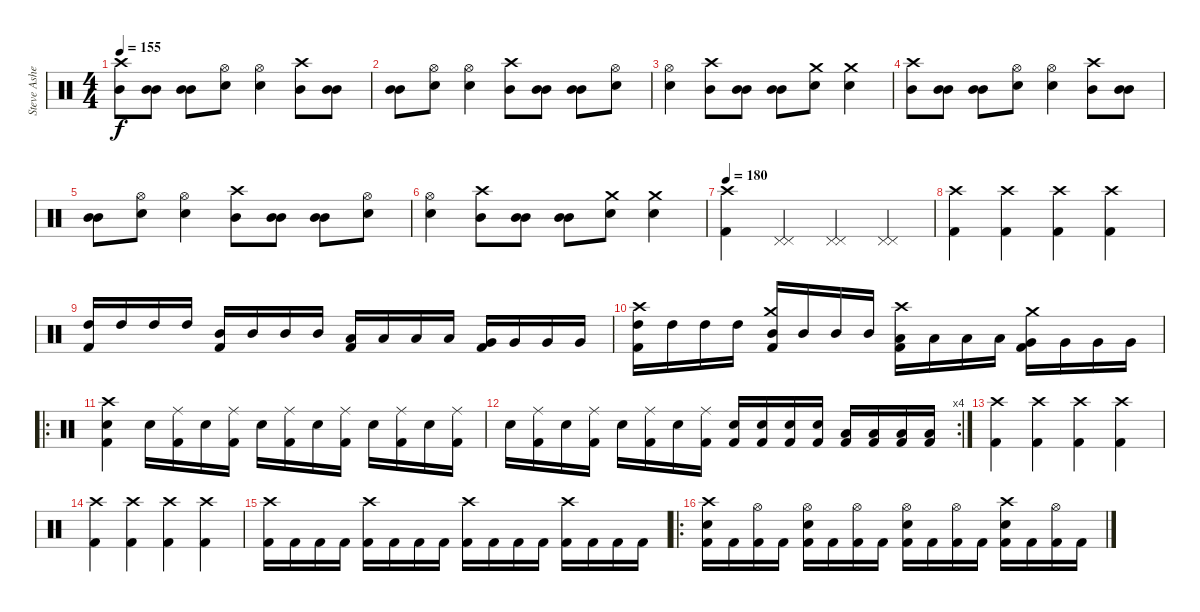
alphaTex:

\track ("Steve Asheim" "Steve Ashe") {instrument percussion}
\staff {score}
\articulation defaults
\ts (4 4)
\tempo 155
\clef neutral
\ks c
("Mid Tom (hit)" "Crash high (hit)").8{dy f} ("Mid Tom (hit)" "Mid Tom (hit)").8 ("Mid Tom (hit)" "Mid Tom (hit)").8 ("Electric Snare (hit)" "Hi-Hat (open)").8 ("Electric Snare (hit)" "Hi-Hat (open)").4 ("Mid Tom (hit)" "Crash high (hit)").8 ("Mid Tom (hit)" "Mid Tom (hit)").8 |
("Mid Tom (hit)" "Mid Tom (hit)").8 ("Electric Snare (hit)" "Hi-Hat (open)").8 ("Electric Snare (hit)" "Hi-Hat (open)").4 ("Mid Tom (hit)" "Crash high (hit)").8 ("Mid Tom (hit)" "Mid Tom (hit)").8 ("Mid Tom (hit)" "Mid Tom (hit)").8 ("Electric Snare (hit)" "Hi-Hat (open)").8 |
("Electric Snare (hit)" "Hi-Hat (open)").4 ("Mid Tom (hit)" "Crash high (hit)").8 ("Mid Tom (hit)" "Mid Tom (hit)").8 ("Mid Tom (hit)" "Mid Tom (hit)").8 ("Electric Snare (hit)" "Crash medium (hit)").8 ("Electric Snare (hit)" "Crash medium (hit)").4 |
("Mid Tom (hit)" "Crash high (hit)").8 ("Mid Tom (hit)" "Mid Tom (hit)").8 ("Mid Tom (hit)" "Mid Tom (hit)").8 ("Electric Snare (hit)" "Hi-Hat (open)").8 ("Electric Snare (hit)" "Hi-Hat (open)").4 ("Mid Tom (hit)" "Crash high (hit)").8 ("Mid Tom (hit)" "Mid Tom (hit)").8 |
("Mid Tom (hit)" "Mid Tom (hit)").8 ("Electric Snare (hit)" "Hi-Hat (open)").8 ("Electric Snare (hit)" "Hi-Hat (open)").4 ("Mid Tom (hit)" "Crash high (hit)").8 ("Mid Tom (hit)" "Mid Tom (hit)").8 ("Mid Tom (hit)" "Mid Tom (hit)").8 ("Electric Snare (hit)" "Hi-Hat (open)").8 |
("Electric Snare (hit)" "Hi-Hat (open)").4 ("Mid Tom (hit)" "Crash high (hit)").8 ("Mid Tom (hit)" "Mid Tom (hit)").8 ("Mid Tom (hit)" "Mid Tom (hit)").8 ("Electric Snare (hit)" "Crash medium (hit)").8 ("Electric Snare (hit)" "Crash medium (hit)").4 |
\tempo 180
("Kick (hit) 2" "Crash high (hit)").4 ("Pedal Hi-Hat (hit)" "Pedal Hi-Hat (hit)").4 ("Pedal Hi-Hat (hit)" "Pedal Hi-Hat (hit)").4 ("Pedal Hi-Hat (hit)" "Pedal Hi-Hat (hit)").4 |
("Kick (hit) 2" "Crash high (hit)").4 ("Kick (hit) 2" "Crash high (hit)").4 ("Kick (hit) 2" "Crash high (hit)").4 ("Kick (hit) 2" "Crash high (hit)").4 |
("High Tom (hit)" "Kick (hit) 2").16 "High Tom (hit)".16 "High Tom (hit)".16 "High Tom (hit)".16 ("Mid Tom (hit)" "Kick (hit) 2").16 "Mid Tom (hit)".16 "Mid Tom (hit)".16 "Mid Tom (hit)".16 ("Low Tom (hit)" "Kick (hit) 2").16 "Low Tom (hit)".16 "Low Tom (hit)".16 "Low Tom (hit)".16 ("Very Low Tom (hit)" "Kick (hit) 2").16 "Very Low Tom (hit)".16 "Very Low Tom (hit)".16 "Very Low Tom (hit)".16 |
("Crash high (hit)" "High Tom (hit)" "Kick (hit) 2").16 "High Tom (hit)".16 "High Tom (hit)".16 "High Tom (hit)".16 ("Crash medium (hit)" "Mid Tom (hit)" "Kick (hit) 2").16 "Mid Tom (hit)".16 "Mid Tom (hit)".16 "Mid Tom (hit)".16 ("Crash high (hit)" "Low Tom (hit)" "Kick (hit) 2").16 "Low Tom (hit)".16 "Low Tom (hit)".16 "Low Tom (hit)".16 ("Crash medium (hit)" "Very Low Tom (hit)" "Kick (hit) 2").16 "Very Low Tom (hit)".16 "Very Low Tom (hit)".16 "Very Low Tom (hit)".16 |
\ro
("Kick (hit) 2" "Electric Snare (hit)" "Crash high (hit)").4 "Electric Snare (hit)".16 ("Kick (hit) 2" "Ride (middle)").16 "Electric Snare (hit)".16 ("Kick (hit) 2" "Ride (middle)").16 "Electric Snare (hit)".16 ("Kick (hit) 2" "Ride (middle)").16 "Electric Snare (hit)".16 ("Kick (hit) 2" "Ride (middle)").16 "Electric Snare (hit)".16 ("Kick (hit) 2" "Ride (middle)").16 "Electric Snare (hit)".16 ("Kick (hit) 2" "Ride (middle)").16 |
\rc 4 "Electric Snare (hit)".16
("Kick (hit) 2" "Ride (middle)").16 "Electric Snare (hit)".16 ("Kick (hit) 2" "Ride (middle)").16 "Electric Snare (hit)".16 ("Kick (hit) 2" "Ride (middle)").16 "Electric Snare (hit)".16 ("Kick (hit) 2" "Ride (middle)").16 ("Kick (hit) 2" "Electric Snare (hit)").16 ("Kick (hit) 2" "Electric Snare (hit)").16 ("Kick (hit) 2" "Electric Snare (hit)").16 ("Kick (hit) 2" "Electric Snare (hit)").16 ("Kick (hit) 2" "Low Tom (hit)").16 ("Kick (hit) 2" "Low Tom (hit)").16 ("Kick (hit) 2" "Low Tom (hit)").16 ("Kick (hit) 2" "Low Tom (hit)").16 |
("Kick (hit) 2" "Crash high (hit)").4 ("Kick (hit) 2" "Crash high (hit)").4 ("Kick (hit) 2" "Crash high (hit)").4 ("Kick (hit) 2" "Crash high (hit)").4 |
("Kick (hit) 2" "Crash high (hit)").4 ("Kick (hit) 2" "Crash high (hit)").4 ("Kick (hit) 2" "Crash high (hit)").4 ("Kick (hit) 2" "Crash high (hit)").4 |
("Kick (hit) 2" "Crash high (hit)").16 "Kick (hit) 2".16 "Kick (hit) 2".16 "Kick (hit) 2".16 ("Kick (hit) 2" "Crash high (hit)").16 "Kick (hit) 2".16 "Kick (hit) 2".16 "Kick (hit) 2".16 ("Kick (hit) 2" "Crash high (hit)").16 "Kick (hit) 2".16 "Kick (hit) 2".16 "Kick (hit) 2".16 ("Kick (hit) 2" "Crash high (hit)").16 "Kick (hit) 2".16 "Kick (hit) 2".16 "Kick (hit) 2".16 |
\ro
("Kick (hit) 2" "Electric Snare (hit)" "Crash high (hit)").16 "Kick (hit) 2".16 ("Kick (hit) 2" "Hi-Hat (open)").16 "Kick (hit) 2".16 ("Kick (hit) 2" "Electric Snare (hit)" "Hi-Hat (open)").16 "Kick (hit) 2".16 ("Kick (hit) 2" "Hi-Hat (open)").16 "Kick (hit) 2".16 ("Kick (hit) 2" "Electric Snare (hit)" "Hi-Hat (open)").16 "Kick (hit) 2".16 ("Kick (hit) 2" "Hi-Hat (open)").16 "Kick (hit) 2".16 ("Kick (hit) 2" "Electric Snare (hit)" "Crash high (hit)").16 "Kick (hit) 2".16 ("Kick (hit) 2" "Hi-Hat (open)").16 "Kick (hit) 2".16
